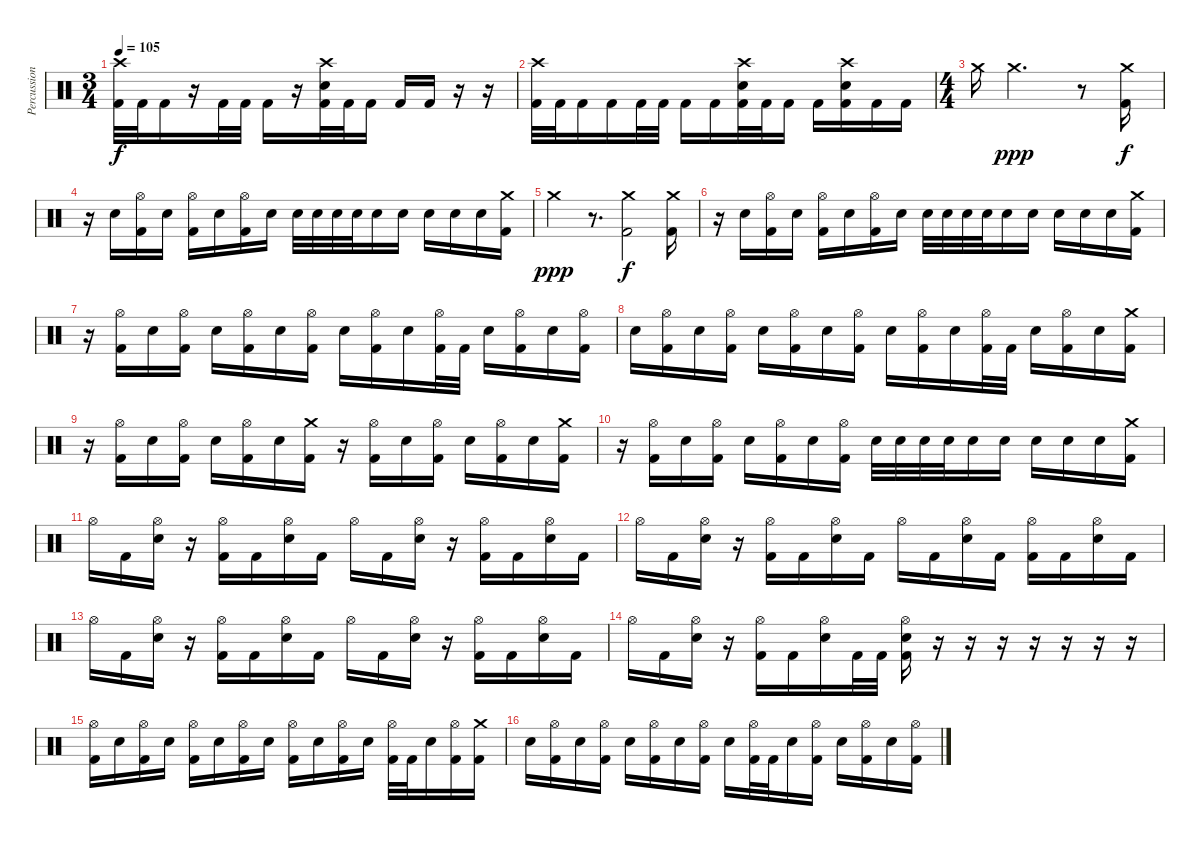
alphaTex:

\track ("Percussion" "Percussion") {instrument percussion}
\staff {score}
\articulation defaults
\ts (3 4)
\tempo 105
\clef neutral
\ks c
("Crash high (hit)" "Kick (hit) 2").32{dy f} "Kick (hit) 2".32 "Kick (hit) 2".16 r.16 "Kick (hit) 2".32 "Kick (hit) 2".32 "Kick (hit) 2".16 r.16 ("Crash high (hit)" "Electric Snare (hit)" "Kick (hit) 2").32 "Kick (hit) 2".32 "Kick (hit) 2".16 "Kick (hit) 2".16 "Kick (hit) 2".16 r.16 r.16 |
("Crash high (hit)" "Kick (hit) 2").32 "Kick (hit) 2".32 "Kick (hit) 2".16 "Kick (hit) 2".16 "Kick (hit) 2".32 "Kick (hit) 2".32 "Kick (hit) 2".16 "Kick (hit) 2".16 ("Crash high (hit)" "Electric Snare (hit)" "Kick (hit) 2").32 "Kick (hit) 2".32 "Kick (hit) 2".16 "Kick (hit) 2".16 ("Crash high (hit)" "Electric Snare (hit)" "Kick (hit) 2").16 "Kick (hit) 2".16 "Kick (hit) 2".16 |
\ts (4 4)
"Crash medium (hit)".16 "Crash medium (hit)".2{d dy ppp} r.8 ("Crash medium (hit)" "Kick (hit) 2").16{dy f} |
r.16 "Electric Snare (hit)".16 ("Hi-Hat (open)" "Kick (hit) 2").16 "Electric Snare (hit)".16 ("Hi-Hat (open)" "Kick (hit) 2").16 "Electric Snare (hit)".16 ("Hi-Hat (open)" "Kick (hit) 2").16 "Electric Snare (hit)".16 "Electric Snare (hit)".32 "Electric Snare (hit)".32 "Electric Snare (hit)".32 "Electric Snare (hit)".32 "Electric Snare (hit)".16 "Electric Snare (hit)".16 "Electric Snare (hit)".16 "Electric Snare (hit)".16 "Electric Snare (hit)".16 ("Crash medium (hit)" "Kick (hit) 2").16 |
"Crash medium (hit)".4{dy ppp} r.8{d} ("Crash medium (hit)" "Kick (hit) 2").2{dy f} ("Crash medium (hit)" "Kick (hit) 2").16 |
r.16 "Electric Snare (hit)".16 ("Hi-Hat (open)" "Kick (hit) 2").16 "Electric Snare (hit)".16 ("Hi-Hat (open)" "Kick (hit) 2").16 "Electric Snare (hit)".16 ("Hi-Hat (open)" "Kick (hit) 2").16 "Electric Snare (hit)".16 "Electric Snare (hit)".32 "Electric Snare (hit)".32 "Electric Snare (hit)".32 "Electric Snare (hit)".32 "Electric Snare (hit)".16 "Electric Snare (hit)".16 "Electric Snare (hit)".16 "Electric Snare (hit)".16 "Electric Snare (hit)".16 ("Crash medium (hit)" "Kick (hit) 2").16 |
r.16 ("Hi-Hat (open)" "Kick (hit) 2").16 "Electric Snare (hit)".16 ("Hi-Hat (open)" "Kick (hit) 2").16 "Electric Snare (hit)".16 ("Hi-Hat (open)" "Kick (hit) 2").16 "Electric Snare (hit)".16 ("Hi-Hat (open)" "Kick (hit) 2").16 "Electric Snare (hit)".16 ("Hi-Hat (open)" "Kick (hit) 2").16 "Electric Snare (hit)".16 ("Hi-Hat (open)" "Kick (hit) 2").32 "Kick (hit) 2".32 "Electric Snare (hit)".16 ("Hi-Hat (open)" "Kick (hit) 2").16 "Electric Snare (hit)".16 ("Hi-Hat (open)" "Kick (hit) 2").16 |
"Electric Snare (hit)".16 ("Hi-Hat (open)" "Kick (hit) 2").16 "Electric Snare (hit)".16 ("Hi-Hat (open)" "Kick (hit) 2").16 "Electric Snare (hit)".16 ("Hi-Hat (open)" "Kick (hit) 2").16 "Electric Snare (hit)".16 ("Hi-Hat (open)" "Kick (hit) 2").16 "Electric Snare (hit)".16 ("Hi-Hat (open)" "Kick (hit) 2").16 "Electric Snare (hit)".16 ("Hi-Hat (open)" "Kick (hit) 2").32 "Kick (hit) 2".32 "Electric Snare (hit)".16 ("Hi-Hat (open)" "Kick (hit) 2").16 "Electric Snare (hit)".16 ("Crash medium (hit)" "Kick (hit) 2").16 |
r.16 ("Hi-Hat (open)" "Kick (hit) 2").16 "Electric Snare (hit)".16 ("Hi-Hat (open)" "Kick (hit) 2").16 "Electric Snare (hit)".16 ("Hi-Hat (open)" "Kick (hit) 2").16 "Electric Snare (hit)".16 ("Crash medium (hit)" "Kick (hit) 2").16 r.16 ("Hi-Hat (open)" "Kick (hit) 2").16 "Electric Snare (hit)".16 ("Hi-Hat (open)" "Kick (hit) 2").16 "Electric Snare (hit)".16 ("Hi-Hat (open)" "Kick (hit) 2").16 "Electric Snare (hit)".16 ("Crash medium (hit)" "Kick (hit) 2").16 |
r.16 ("Hi-Hat (open)" "Kick (hit) 2").16 "Electric Snare (hit)".16 ("Hi-Hat (open)" "Kick (hit) 2").16 "Electric Snare (hit)".16 ("Hi-Hat (open)" "Kick (hit) 2").16 "Electric Snare (hit)".16 ("Hi-Hat (open)" "Kick (hit) 2").16 "Electric Snare (hit)".32 "Electric Snare (hit)".32 "Electric Snare (hit)".32 "Electric Snare (hit)".32 "Electric Snare (hit)".16 "Electric Snare (hit)".16 "Electric Snare (hit)".16 "Electric Snare (hit)".16 "Electric Snare (hit)".16 ("Crash medium (hit)" "Kick (hit) 2").16 |
"Hi-Hat (open)".16 "Kick (hit) 2".16 ("Hi-Hat (open)" "Electric Snare (hit)").16 r.16 ("Hi-Hat (open)" "Kick (hit) 2").16 "Kick (hit) 2".16 ("Hi-Hat (open)" "Electric Snare (hit)").16 "Kick (hit) 2".16 "Hi-Hat (open)".16 "Kick (hit) 2".16 ("Hi-Hat (open)" "Electric Snare (hit)").16 r.16 ("Hi-Hat (open)" "Kick (hit) 2").16 "Kick (hit) 2".16 ("Hi-Hat (open)" "Electric Snare (hit)").16 "Kick (hit) 2".16 |
"Hi-Hat (open)".16 "Kick (hit) 2".16 ("Hi-Hat (open)" "Electric Snare (hit)").16 r.16 ("Hi-Hat (open)" "Kick (hit) 2").16 "Kick (hit) 2".16 ("Hi-Hat (open)" "Electric Snare (hit)").16 "Kick (hit) 2".16 "Hi-Hat (open)".16 "Kick (hit) 2".16 ("Hi-Hat (open)" "Electric Snare (hit)").16 "Kick (hit) 2".16 ("Hi-Hat (open)" "Kick (hit) 2").16 "Kick (hit) 2".16 ("Hi-Hat (open)" "Electric Snare (hit)").16 "Kick (hit) 2".16 |
"Hi-Hat (open)".16 "Kick (hit) 2".16 ("Hi-Hat (open)" "Electric Snare (hit)").16 r.16 ("Hi-Hat (open)" "Kick (hit) 2").16 "Kick (hit) 2".16 ("Hi-Hat (open)" "Electric Snare (hit)").16 "Kick (hit) 2".16 "Hi-Hat (open)".16 "Kick (hit) 2".16 ("Hi-Hat (open)" "Electric Snare (hit)").16 r.16 ("Hi-Hat (open)" "Kick (hit) 2").16 "Kick (hit) 2".16 ("Hi-Hat (open)" "Electric Snare (hit)").16 "Kick (hit) 2".16 |
"Hi-Hat (open)".16 "Kick (hit) 2".16 ("Hi-Hat (open)" "Electric Snare (hit)").16 r.16 ("Hi-Hat (open)" "Kick (hit) 2").16 "Kick (hit) 2".16 ("Hi-Hat (open)" "Electric Snare (hit)").16 "Kick (hit) 2".32 "Kick (hit) 2".32 ("Hi-Hat (open)" "Electric Snare (hit)" "Kick (hit) 2").16 r.16 r.16 r.16 r.16 r.16 r.16 r.16 |
("Hi-Hat (open)" "Kick (hit) 2").16 "Electric Snare (hit)".16 ("Hi-Hat (open)" "Kick (hit) 2").16 "Electric Snare (hit)".16 ("Hi-Hat (open)" "Kick (hit) 2").16 "Electric Snare (hit)".16 ("Hi-Hat (open)" "Kick (hit) 2").16 "Electric Snare (hit)".16 ("Hi-Hat (open)" "Kick (hit) 2").16 "Electric Snare (hit)".16 ("Hi-Hat (open)" "Kick (hit) 2").16 "Electric Snare (hit)".16 ("Hi-Hat (open)" "Kick (hit) 2").32 "Kick (hit) 2".32 "Electric Snare (hit)".16 ("Hi-Hat (open)" "Kick (hit) 2").16 ("Crash medium (hit)" "Kick (hit) 2").16 |
"Electric Snare (hit)".16 ("Hi-Hat (open)" "Kick (hit) 2").16 "Electric Snare (hit)".16 ("Hi-Hat (open)" "Kick (hit) 2").16 "Electric Snare (hit)".16 ("Hi-Hat (open)" "Kick (hit) 2").16 "Electric Snare (hit)".16 ("Hi-Hat (open)" "Kick (hit) 2").16 "Electric Snare (hit)".16 ("Hi-Hat (open)" "Kick (hit) 2").32 "Kick (hit) 2".32 "Electric Snare (hit)".16 ("Hi-Hat (open)" "Kick (hit) 2").16 "Electric Snare (hit)".16 ("Hi-Hat (open)" "Kick (hit) 2").16 "Electric Snare (hit)".16 ("Hi-Hat (open)" "Kick (hit) 2").16
